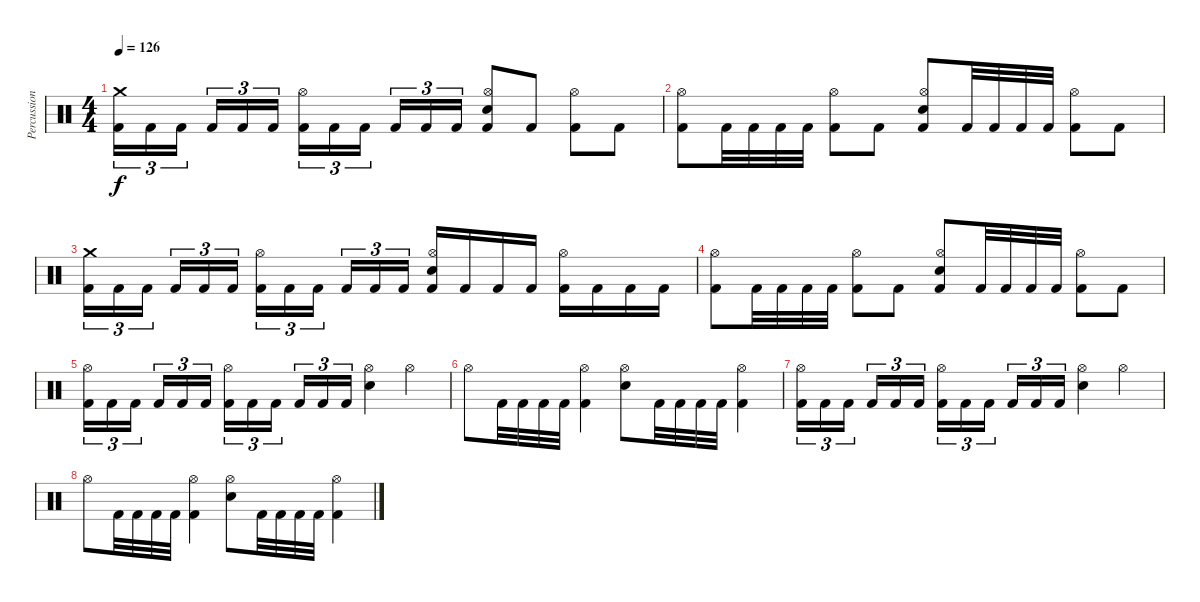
\track ("Percussion" "Percussion") {instrument percussion}
\staff {score}
\articulation defaults
\ts (4 4)
\tempo 126
\clef neutral
\ks c
("Crash medium (hit)" "Kick (hit) 2").16{tu (3 2) dy f} "Kick (hit) 2".16{tu (3 2)} "Kick (hit) 2".16{tu (3 2) beam splitsecondary} "Kick (hit) 2".16{tu (3 2)} "Kick (hit) 2".16{tu (3 2)} "Kick (hit) 2".16{tu (3 2)} ("Hi-Hat (open)" "Kick (hit) 2").16{tu (3 2)} "Kick (hit) 2".16{tu (3 2)} "Kick (hit) 2".16{tu (3 2) beam splitsecondary} "Kick (hit) 2".16{tu (3 2)} "Kick (hit) 2".16{tu (3 2)} "Kick (hit) 2".16{tu (3 2)} ("Hi-Hat (open)" "Electric Snare (hit)" "Kick (hit) 2").8 "Kick (hit) 2".8 ("Hi-Hat (open)" "Kick (hit) 2").8 "Kick (hit) 2".8 |
("Hi-Hat (open)" "Kick (hit) 2").8 "Kick (hit) 2".32 "Kick (hit) 2".32 "Kick (hit) 2".32 "Kick (hit) 2".32 ("Hi-Hat (open)" "Kick (hit) 2").8 "Kick (hit) 2".8 ("Hi-Hat (open)" "Electric Snare (hit)" "Kick (hit) 2").8 "Kick (hit) 2".32 "Kick (hit) 2".32 "Kick (hit) 2".32 "Kick (hit) 2".32 ("Hi-Hat (open)" "Kick (hit) 2").8 "Kick (hit) 2".8 |
("Crash medium (hit)" "Kick (hit) 2").16{tu (3 2)} "Kick (hit) 2".16{tu (3 2)} "Kick (hit) 2".16{tu (3 2) beam splitsecondary} "Kick (hit) 2".16{tu (3 2)} "Kick (hit) 2".16{tu (3 2)} "Kick (hit) 2".16{tu (3 2)} ("Hi-Hat (open)" "Kick (hit) 2").16{tu (3 2)} "Kick (hit) 2".16{tu (3 2)} "Kick (hit) 2".16{tu (3 2) beam splitsecondary} "Kick (hit) 2".16{tu (3 2)} "Kick (hit) 2".16{tu (3 2)} "Kick (hit) 2".16{tu (3 2)} ("Hi-Hat (open)" "Electric Snare (hit)" "Kick (hit) 2").16 "Kick (hit) 2".16 "Kick (hit) 2".16 "Kick (hit) 2".16 ("Hi-Hat (open)" "Kick (hit) 2").16 "Kick (hit) 2".16 "Kick (hit) 2".16 "Kick (hit) 2".16 |
("Hi-Hat (open)" "Kick (hit) 2").8 "Kick (hit) 2".32 "Kick (hit) 2".32 "Kick (hit) 2".32 "Kick (hit) 2".32 ("Hi-Hat (open)" "Kick (hit) 2").8 "Kick (hit) 2".8 ("Hi-Hat (open)" "Electric Snare (hit)" "Kick (hit) 2").8 "Kick (hit) 2".32 "Kick (hit) 2".32 "Kick (hit) 2".32 "Kick (hit) 2".32 ("Hi-Hat (open)" "Kick (hit) 2").8 "Kick (hit) 2".8 |
("Hi-Hat (open)" "Kick (hit) 2").16{tu (3 2)} "Kick (hit) 2".16{tu (3 2)} "Kick (hit) 2".16{tu (3 2) beam splitsecondary} "Kick (hit) 2".16{tu (3 2)} "Kick (hit) 2".16{tu (3 2)} "Kick (hit) 2".16{tu (3 2)} ("Hi-Hat (open)" "Kick (hit) 2").16{tu (3 2)} "Kick (hit) 2".16{tu (3 2)} "Kick (hit) 2".16{tu (3 2) beam splitsecondary} "Kick (hit) 2".16{tu (3 2)} "Kick (hit) 2".16{tu (3 2)} "Kick (hit) 2".16{tu (3 2)} ("Hi-Hat (open)" "Electric Snare (hit)").4 "Hi-Hat (open)".4 |
"Hi-Hat (open)".8 "Kick (hit) 2".32 "Kick (hit) 2".32 "Kick (hit) 2".32 "Kick (hit) 2".32 ("Hi-Hat (open)" "Kick (hit) 2").4 ("Hi-Hat (open)" "Electric Snare (hit)").8 "Kick (hit) 2".32 "Kick (hit) 2".32 "Kick (hit) 2".32 "Kick (hit) 2".32 ("Hi-Hat (open)" "Kick (hit) 2").4 |
("Hi-Hat (open)" "Kick (hit) 2").16{tu (3 2)} "Kick (hit) 2".16{tu (3 2)} "Kick (hit) 2".16{tu (3 2) beam splitsecondary} "Kick (hit) 2".16{tu (3 2)} "Kick (hit) 2".16{tu (3 2)} "Kick (hit) 2".16{tu (3 2)} ("Hi-Hat (open)" "Kick (hit) 2").16{tu (3 2)} "Kick (hit) 2".16{tu (3 2)} "Kick (hit) 2".16{tu (3 2) beam splitsecondary} "Kick (hit) 2".16{tu (3 2)} "Kick (hit) 2".16{tu (3 2)} "Kick (hit) 2".16{tu (3 2)} ("Hi-Hat (open)" "Electric Snare (hit)").4 "Hi-Hat (open)".4 |
"Hi-Hat (open)".8 "Kick (hit) 2".32 "Kick (hit) 2".32 "Kick (hit) 2".32 "Kick (hit) 2".32 ("Hi-Hat (open)" "Kick (hit) 2").4 ("Hi-Hat (open)" "Electric Snare (hit)").8 "Kick (hit) 2".32 "Kick (hit) 2".32 "Kick (hit) 2".32 "Kick (hit) 2".32 ("Hi-Hat (open)" "Kick (hit) 2").4
